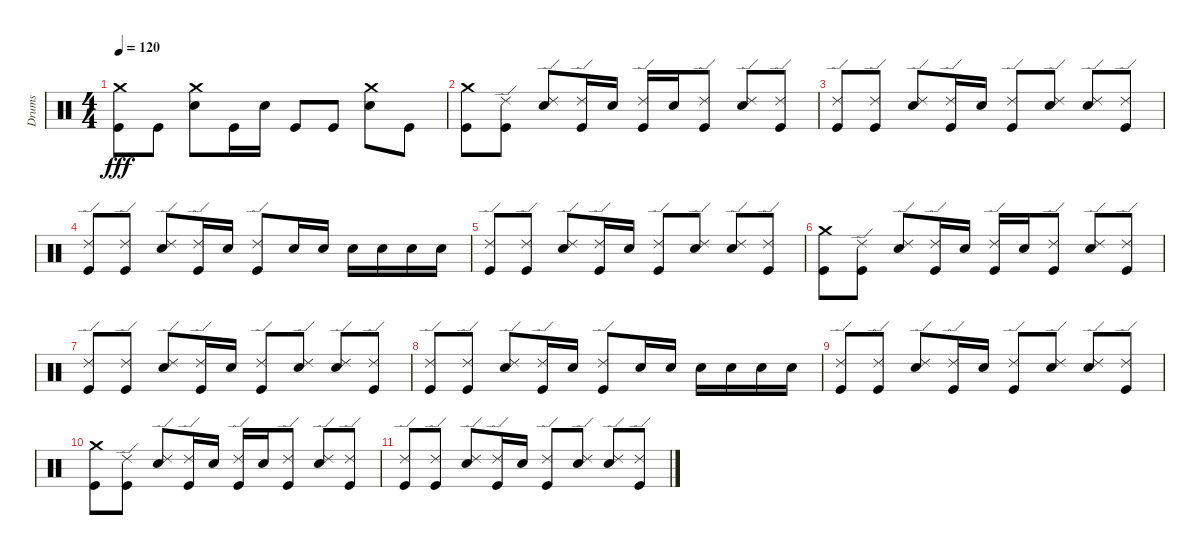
\track ("Drums" "Drums") {instrument percussion}
\staff {score}
\articulation defaults
\ts (4 4)
\tempo 120
\clef neutral
\ks c
("Crash medium (hit)" "Kick (hit)").8{dy fff} "Kick (hit)".8 ("Crash medium (hit)" "Electric Snare (hit)").8 "Kick (hit)".16 "Electric Snare (hit)".16 "Kick (hit)".8 "Kick (hit)".8 ("Crash medium (hit)" "Electric Snare (hit)").8 "Kick (hit)".8 |
("Crash medium (hit)" "Kick (hit)").8 ("Ride (edge) 2" "Kick (hit)").8 ("Ride (edge) 2" "Electric Snare (hit)").8 ("Ride (edge) 2" "Kick (hit)").16 "Electric Snare (hit)".16 ("Ride (edge) 2" "Kick (hit)").16 "Electric Snare (hit)".16 ("Ride (edge) 2" "Kick (hit)").8 ("Ride (edge) 2" "Electric Snare (hit)").8 ("Ride (edge) 2" "Kick (hit)").8 |
("Ride (edge) 2" "Kick (hit)").8 ("Ride (edge) 2" "Kick (hit)").8 ("Ride (edge) 2" "Electric Snare (hit)").8 ("Ride (edge) 2" "Kick (hit)").16 "Electric Snare (hit)".16 ("Ride (edge) 2" "Kick (hit)").8 ("Ride (edge) 2" "Electric Snare (hit)").8 ("Ride (edge) 2" "Electric Snare (hit)").8 ("Ride (edge) 2" "Kick (hit)").8 |
("Ride (edge) 2" "Kick (hit)").8 ("Ride (edge) 2" "Kick (hit)").8 ("Ride (edge) 2" "Electric Snare (hit)").8 ("Ride (edge) 2" "Kick (hit)").16 "Electric Snare (hit)".16 ("Ride (edge) 2" "Kick (hit)").8 "Electric Snare (hit)".16 "Electric Snare (hit)".16 "Electric Snare (hit)".16 "Electric Snare (hit)".16 "Electric Snare (hit)".16 "Electric Snare (hit)".16 |
("Ride (edge) 2" "Kick (hit)").8 ("Ride (edge) 2" "Kick (hit)").8 ("Ride (edge) 2" "Electric Snare (hit)").8 ("Ride (edge) 2" "Kick (hit)").16 "Electric Snare (hit)".16 ("Ride (edge) 2" "Kick (hit)").8 ("Ride (edge) 2" "Electric Snare (hit)").8 ("Ride (edge) 2" "Electric Snare (hit)").8 ("Ride (edge) 2" "Kick (hit)").8 |
("Crash medium (hit)" "Kick (hit)").8{volume 8} ("Ride (edge) 2" "Kick (hit)").8 ("Ride (edge) 2" "Electric Snare (hit)").8 ("Ride (edge) 2" "Kick (hit)").16 "Electric Snare (hit)".16 ("Ride (edge) 2" "Kick (hit)").16 "Electric Snare (hit)".16 ("Ride (edge) 2" "Kick (hit)").8 ("Ride (edge) 2" "Electric Snare (hit)").8 ("Ride (edge) 2" "Kick (hit)").8 |
("Ride (edge) 2" "Kick (hit)").8 ("Ride (edge) 2" "Kick (hit)").8 ("Ride (edge) 2" "Electric Snare (hit)").8 ("Ride (edge) 2" "Kick (hit)").16 "Electric Snare (hit)".16 ("Ride (edge) 2" "Kick (hit)").8 ("Ride (edge) 2" "Electric Snare (hit)").8 ("Ride (edge) 2" "Electric Snare (hit)").8 ("Ride (edge) 2" "Kick (hit)").8 |
("Ride (edge) 2" "Kick (hit)").8 ("Ride (edge) 2" "Kick (hit)").8 ("Ride (edge) 2" "Electric Snare (hit)").8 ("Ride (edge) 2" "Kick (hit)").16 "Electric Snare (hit)".16 ("Ride (edge) 2" "Kick (hit)").8 "Electric Snare (hit)".16 "Electric Snare (hit)".16 "Electric Snare (hit)".16 "Electric Snare (hit)".16 "Electric Snare (hit)".16 "Electric Snare (hit)".16 |
("Ride (edge) 2" "Kick (hit)").8 ("Ride (edge) 2" "Kick (hit)").8 ("Ride (edge) 2" "Electric Snare (hit)").8 ("Ride (edge) 2" "Kick (hit)").16 "Electric Snare (hit)".16 ("Ride (edge) 2" "Kick (hit)").8 ("Ride (edge) 2" "Electric Snare (hit)").8 ("Ride (edge) 2" "Electric Snare (hit)").8 ("Ride (edge) 2" "Kick (hit)").8 |
("Crash medium (hit)" "Kick (hit)").8{volume 0} ("Ride (edge) 2" "Kick (hit)").8 ("Ride (edge) 2" "Electric Snare (hit)").8 ("Ride (edge) 2" "Kick (hit)").16 "Electric Snare (hit)".16 ("Ride (edge) 2" "Kick (hit)").16 "Electric Snare (hit)".16 ("Ride (edge) 2" "Kick (hit)").8 ("Ride (edge) 2" "Electric Snare (hit)").8 ("Ride (edge) 2" "Kick (hit)").8 |
("Ride (edge) 2" "Kick (hit)").8 ("Ride (edge) 2" "Kick (hit)").8 ("Ride (edge) 2" "Electric Snare (hit)").8 ("Ride (edge) 2" "Kick (hit)").16 "Electric Snare (hit)".16 ("Ride (edge) 2" "Kick (hit)").8 ("Ride (edge) 2" "Electric Snare (hit)").8 ("Ride (edge) 2" "Electric Snare (hit)").8 ("Ride (edge) 2" "Kick (hit)").8
